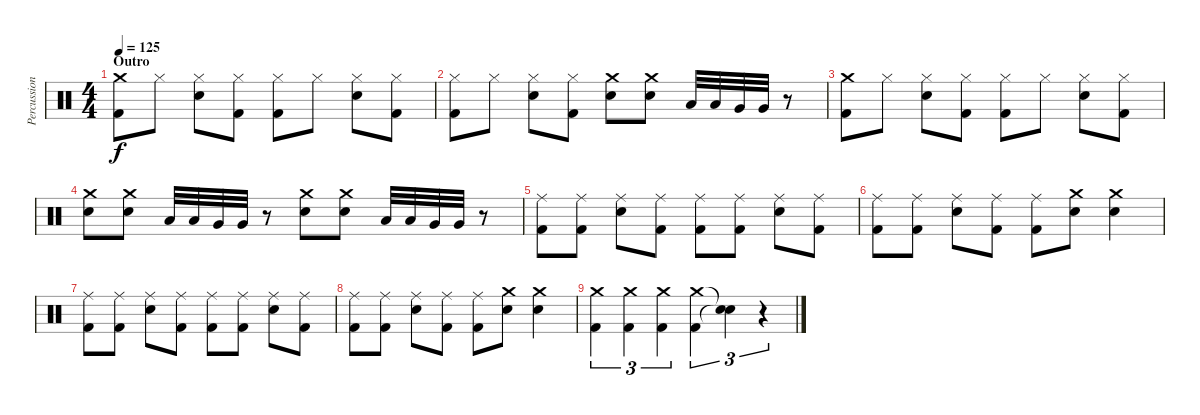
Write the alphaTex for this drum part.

\track ("Percussion" "Percussion") {instrument percussion}
\staff {score}
\articulation defaults
\ts (4 4)
\section ("" "Outro")
\tempo 125
\clef neutral
\ks c
("Crash medium (hit)" "Kick (hit) 2").8{dy f} "Hi-Hat (closed)".8 ("Hi-Hat (closed)" "Electric Snare (hit)").8 ("Hi-Hat (closed)" "Kick (hit) 2").8 ("Hi-Hat (closed)" "Kick (hit) 2").8 "Hi-Hat (closed)".8 ("Hi-Hat (closed)" "Electric Snare (hit)").8 ("Hi-Hat (closed)" "Kick (hit) 2").8 |
("Hi-Hat (closed)" "Kick (hit) 2").8 "Hi-Hat (closed)".8 ("Hi-Hat (closed)" "Electric Snare (hit)").8 ("Hi-Hat (closed)" "Kick (hit) 2").8 ("Crash medium (hit)" "Electric Snare (hit)").8 ("Crash medium (hit)" "Electric Snare (hit)").8 "Low Tom (hit)".32 "Low Tom (hit)".32 "Very Low Tom (hit)".32 "Very Low Tom (hit)".32 r.8 |
("Crash medium (hit)" "Kick (hit) 2").8 "Hi-Hat (closed)".8 ("Hi-Hat (closed)" "Electric Snare (hit)").8 ("Hi-Hat (closed)" "Kick (hit) 2").8 ("Hi-Hat (closed)" "Kick (hit) 2").8 "Hi-Hat (closed)".8 ("Hi-Hat (closed)" "Electric Snare (hit)").8 ("Hi-Hat (closed)" "Kick (hit) 2").8 |
("Crash medium (hit)" "Electric Snare (hit)").8 ("Crash medium (hit)" "Electric Snare (hit)").8 "Low Tom (hit)".32 "Low Tom (hit)".32 "Very Low Tom (hit)".32 "Very Low Tom (hit)".32 r.8 ("Crash medium (hit)" "Electric Snare (hit)").8 ("Crash medium (hit)" "Electric Snare (hit)").8 "Low Tom (hit)".32 "Low Tom (hit)".32 "Very Low Tom (hit)".32 "Very Low Tom (hit)".32 r.8 |
("Ride (middle)" "Kick (hit) 2").8 ("Ride (middle)" "Kick (hit) 2").8 ("Ride (middle)" "Electric Snare (hit)").8 ("Ride (middle)" "Kick (hit) 2").8 ("Ride (middle)" "Kick (hit) 2").8 ("Ride (middle)" "Kick (hit) 2").8 ("Ride (middle)" "Electric Snare (hit)").8 ("Ride (middle)" "Kick (hit) 2").8 |
("Ride (middle)" "Kick (hit) 2").8 ("Ride (middle)" "Kick (hit) 2").8 ("Ride (middle)" "Electric Snare (hit)").8 ("Ride (middle)" "Kick (hit) 2").8 ("Ride (middle)" "Kick (hit) 2").8 ("Crash medium (hit)" "Electric Snare (hit)").8 ("Crash medium (hit)" "Electric Snare (hit)").4 |
("Ride (middle)" "Kick (hit) 2").8 ("Ride (middle)" "Kick (hit) 2").8 ("Ride (middle)" "Electric Snare (hit)").8 ("Ride (middle)" "Kick (hit) 2").8 ("Ride (middle)" "Kick (hit) 2").8 ("Ride (middle)" "Kick (hit) 2").8 ("Ride (middle)" "Electric Snare (hit)").8 ("Ride (middle)" "Kick (hit) 2").8 |
("Ride (middle)" "Kick (hit) 2").8 ("Ride (middle)" "Kick (hit) 2").8 ("Ride (middle)" "Electric Snare (hit)").8 ("Ride (middle)" "Kick (hit) 2").8 ("Ride (middle)" "Kick (hit) 2").8 ("Crash medium (hit)" "Electric Snare (hit)").8 ("Crash medium (hit)" "Electric Snare (hit)").4 |
("Crash medium (hit)" "Kick (hit) 2").4{tu (3 2)} ("Crash medium (hit)" "Kick (hit) 2").4{tu (3 2)} ("Crash medium (hit)" "Kick (hit) 2").4{tu (3 2)} ("Crash medium (hit)" "Kick (hit) 2").4{tu (3 2)} ("Snare (hit)"{t} "Snare (hit)"{t}).4{tu (3 2)} r.4{tu (3 2)}
